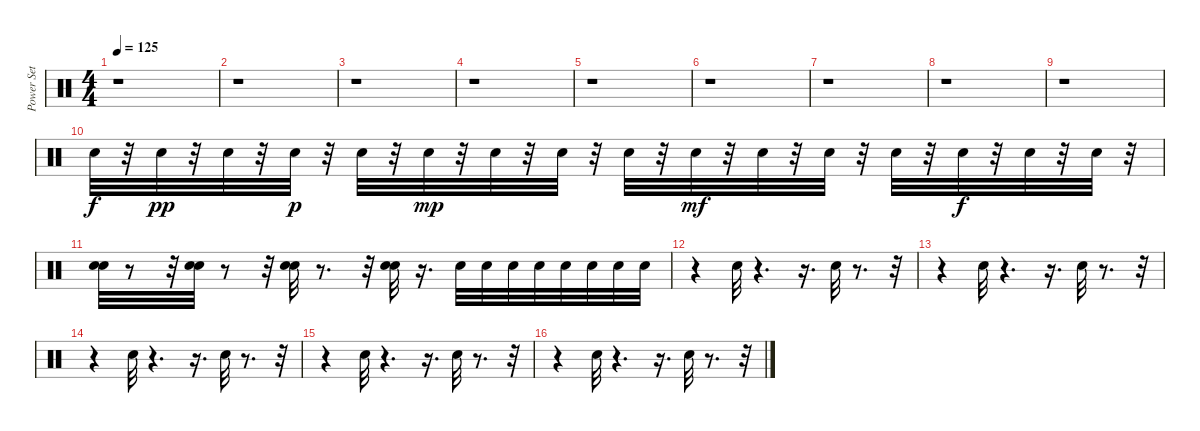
\track ("Power Set" "Power Set") {instrument percussion}
\staff {score}
\articulation defaults
\ts (4 4)
\tempo 125
\clef neutral
\ks c
r.1{dy f} |
r.1 |
r.1 |
r.1 |
r.1 |
r.1 |
r.1 |
r.1 |
r.1 |
"Snare (hit) 2".32 r.32 "Electric Snare (hit)".32{dy pp} r.32 "Electric Snare (hit)".32 r.32 "Electric Snare (hit)".32{dy p} r.32 "Electric Snare (hit)".32 r.32 "Electric Snare (hit)".32{dy mp} r.32 "Electric Snare (hit)".32 r.32 "Electric Snare (hit)".32 r.32 "Electric Snare (hit)".32 r.32 "Electric Snare (hit)".32{dy mf} r.32 "Electric Snare (hit)".32 r.32 "Electric Snare (hit)".32 r.32 "Electric Snare (hit)".32 r.32 "Electric Snare (hit)".32{dy f} r.32 "Electric Snare (hit)".32 r.32 "Electric Snare (hit)".32 r.32 |
("Electric Snare (hit)" "Electric Snare (hit)").32 r.8 r.32 ("Electric Snare (hit)" "Electric Snare (hit)").32 r.8 r.32 ("Electric Snare (hit)" "Electric Snare (hit)").32 r.8{d} r.32 ("Electric Snare (hit)" "Electric Snare (hit)").32 r.16{d} "Electric Snare (hit)".32 "Electric Snare (hit)".32 "Electric Snare (hit)".32 "Electric Snare (hit)".32 "Electric Snare (hit)".32 "Electric Snare (hit)".32 "Electric Snare (hit)".32 "Electric Snare (hit)".32 |
r.4 "Snare (hit) 2".32 r.4{d} r.16{d} "Snare (hit) 2".32 r.8{d} r.32 |
r.4 "Snare (hit) 2".32 r.4{d} r.16{d} "Snare (hit) 2".32 r.8{d} r.32 |
r.4 "Snare (hit) 2".32 r.4{d} r.16{d} "Snare (hit) 2".32 r.8{d} r.32 |
r.4 "Snare (hit) 2".32 r.4{d} r.16{d} "Snare (hit) 2".32 r.8{d} r.32 |
r.4 "Snare (hit) 2".32 r.4{d} r.16{d} "Snare (hit) 2".32 r.8{d} r.32
